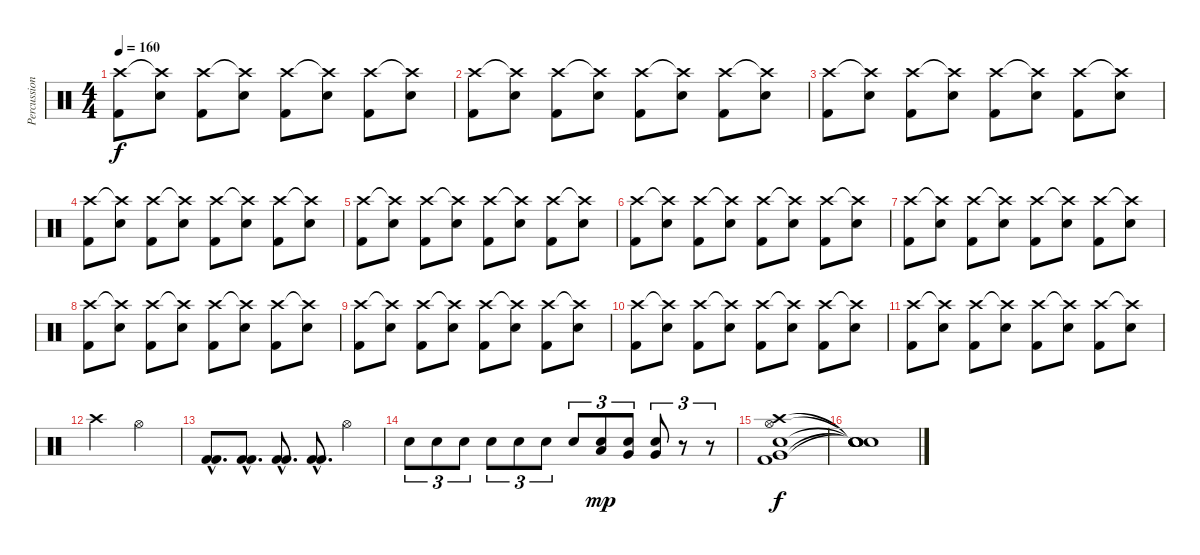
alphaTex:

\track ("Percussions" "Percussion") {instrument percussion}
\staff {score}
\articulation defaults
\ts (4 4)
\tempo 160
\clef neutral
\ks c
("Crash high (hit)" "Kick (hit) 2").8{dy f} ("Crash high (hit)"{t} "Electric Snare (hit)").8 ("Crash high (hit)" "Kick (hit) 2").8 ("Crash high (hit)"{t} "Electric Snare (hit)").8 ("Crash high (hit)" "Kick (hit) 2").8 ("Crash high (hit)"{t} "Electric Snare (hit)").8 ("Crash high (hit)" "Kick (hit) 2").8 ("Crash high (hit)"{t} "Electric Snare (hit)").8 |
("Crash high (hit)" "Kick (hit) 2").8 ("Crash high (hit)"{t} "Electric Snare (hit)").8 ("Crash high (hit)" "Kick (hit) 2").8 ("Crash high (hit)"{t} "Electric Snare (hit)").8 ("Crash high (hit)" "Kick (hit) 2").8 ("Crash high (hit)"{t} "Electric Snare (hit)").8 ("Crash high (hit)" "Kick (hit) 2").8 ("Crash high (hit)"{t} "Electric Snare (hit)").8 |
("Crash high (hit)" "Kick (hit) 2").8 ("Crash high (hit)"{t} "Electric Snare (hit)").8 ("Crash high (hit)" "Kick (hit) 2").8 ("Crash high (hit)"{t} "Electric Snare (hit)").8 ("Crash high (hit)" "Kick (hit) 2").8 ("Crash high (hit)"{t} "Electric Snare (hit)").8 ("Crash high (hit)" "Kick (hit) 2").8 ("Crash high (hit)"{t} "Electric Snare (hit)").8 |
("Crash high (hit)" "Kick (hit) 2").8 ("Crash high (hit)"{t} "Electric Snare (hit)").8 ("Crash high (hit)" "Kick (hit) 2").8 ("Crash high (hit)"{t} "Electric Snare (hit)").8 ("Crash high (hit)" "Kick (hit) 2").8 ("Crash high (hit)"{t} "Electric Snare (hit)").8 ("Crash high (hit)" "Kick (hit) 2").8 ("Crash high (hit)"{t} "Electric Snare (hit)").8 |
("Crash high (hit)" "Kick (hit) 2").8 ("Crash high (hit)"{t} "Electric Snare (hit)").8 ("Crash high (hit)" "Kick (hit) 2").8 ("Crash high (hit)"{t} "Electric Snare (hit)").8 ("Crash high (hit)" "Kick (hit) 2").8 ("Crash high (hit)"{t} "Electric Snare (hit)").8 ("Crash high (hit)" "Kick (hit) 2").8 ("Crash high (hit)"{t} "Electric Snare (hit)").8 |
("Crash high (hit)" "Kick (hit) 2").8 ("Crash high (hit)"{t} "Electric Snare (hit)").8 ("Crash high (hit)" "Kick (hit) 2").8 ("Crash high (hit)"{t} "Electric Snare (hit)").8 ("Crash high (hit)" "Kick (hit) 2").8 ("Crash high (hit)"{t} "Electric Snare (hit)").8 ("Crash high (hit)" "Kick (hit) 2").8 ("Crash high (hit)"{t} "Electric Snare (hit)").8 |
("Crash high (hit)" "Kick (hit) 2").8 ("Crash high (hit)"{t} "Electric Snare (hit)").8 ("Crash high (hit)" "Kick (hit) 2").8 ("Crash high (hit)"{t} "Electric Snare (hit)").8 ("Crash high (hit)" "Kick (hit) 2").8 ("Crash high (hit)"{t} "Electric Snare (hit)").8 ("Crash high (hit)" "Kick (hit) 2").8 ("Crash high (hit)"{t} "Electric Snare (hit)").8 |
("Crash high (hit)" "Kick (hit) 2").8 ("Crash high (hit)"{t} "Electric Snare (hit)").8 ("Crash high (hit)" "Kick (hit) 2").8 ("Crash high (hit)"{t} "Electric Snare (hit)").8 ("Crash high (hit)" "Kick (hit) 2").8 ("Crash high (hit)"{t} "Electric Snare (hit)").8 ("Crash high (hit)" "Kick (hit) 2").8 ("Crash high (hit)"{t} "Electric Snare (hit)").8 |
("Crash high (hit)" "Kick (hit) 2").8 ("Crash high (hit)"{t} "Electric Snare (hit)").8 ("Crash high (hit)" "Kick (hit) 2").8 ("Crash high (hit)"{t} "Electric Snare (hit)").8 ("Crash high (hit)" "Kick (hit) 2").8 ("Crash high (hit)"{t} "Electric Snare (hit)").8 ("Crash high (hit)" "Kick (hit) 2").8 ("Crash high (hit)"{t} "Electric Snare (hit)").8 |
("Crash high (hit)" "Kick (hit) 2").8 ("Crash high (hit)"{t} "Electric Snare (hit)").8 ("Crash high (hit)" "Kick (hit) 2").8 ("Crash high (hit)"{t} "Electric Snare (hit)").8 ("Crash high (hit)" "Kick (hit) 2").8 ("Crash high (hit)"{t} "Electric Snare (hit)").8 ("Crash high (hit)" "Kick (hit) 2").8 ("Crash high (hit)"{t} "Electric Snare (hit)").8 |
("Crash high (hit)" "Kick (hit) 2").8 ("Crash high (hit)"{t} "Electric Snare (hit)").8 ("Crash high (hit)" "Kick (hit) 2").8 ("Crash high (hit)"{t} "Electric Snare (hit)").8 ("Crash high (hit)" "Kick (hit) 2").8 ("Crash high (hit)"{t} "Electric Snare (hit)").8 ("Crash high (hit)" "Kick (hit) 2").8 ("Crash high (hit)"{t} "Electric Snare (hit)").8 |
"Crash high (hit)".2 "Hi-Hat (open)".2 |
("Kick (hit) 2"{hac} "Kick (hit) 2"{hac}).8{d} ("Kick (hit) 2"{hac} "Kick (hit) 2"{hac}).8{d} ("Kick (hit) 2"{hac} "Kick (hit) 2"{hac}).8{d} ("Kick (hit) 2"{hac} "Kick (hit) 2"{hac}).8{d} "Hi-Hat (open)".4 |
"Electric Snare (hit)".8{tu (3 2)} "Electric Snare (hit)".8{tu (3 2)} "Electric Snare (hit)".8{tu (3 2)} "Electric Snare (hit)".8{tu (3 2)} "Electric Snare (hit)".8{tu (3 2)} "Electric Snare (hit)".8{tu (3 2)} "Electric Snare (hit)".8{tu (3 2)} ("Electric Snare (hit)" "Low Tom (hit)").8{tu (3 2) dy mp} ("Electric Snare (hit)" "Very Low Tom (hit)").8{tu (3 2)} ("Electric Snare (hit)" "Very Low Tom (hit)").8{tu (3 2)} r.8{tu (3 2)} r.8{tu (3 2)} |
("Crash high (hit)" "Hi-Hat (open)" "Electric Snare (hit)" "Kick (hit) 2" "Very Low Tom (hit)").1{dy f} |
("Snare (hit)"{t} "Snare (hit)"{t} "Snare (hit)"{t} "Snare (hit)"{t} "Snare (hit)"{t}).1
